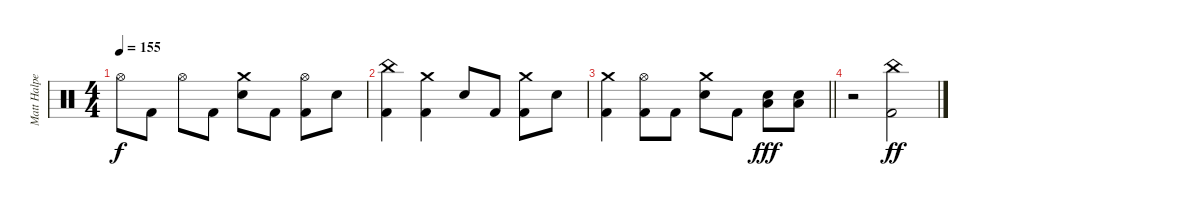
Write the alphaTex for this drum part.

\track ("Matt Halpern - Drums" "Matt Halpe") {instrument percussion}
\staff {score}
\articulation defaults
\ts (4 4)
\tempo 155
\clef neutral
\ks c "Hi-Hat (open)".8{dy f} "Kick (hit) 2".8 "Hi-Hat (open)".8 "Kick (hit) 2".8
("Crash medium (hit)" "Electric Snare (hit)").8 "Kick (hit) 2".8 ("Hi-Hat (open)" "Kick (hit) 2").8 "Electric Snare (hit)".8 |
("China (hit)" "Kick (hit) 2").4 ("Crash medium (hit)" "Kick (hit) 2").4 "Electric Snare (hit)".8 "Kick (hit) 2".8 ("Crash medium (hit)" "Kick (hit) 2").8 "Electric Snare (hit)".8 |
\barLineRight lightlight
("Crash medium (hit)" "Kick (hit) 2").4 ("Hi-Hat (open)" "Kick (hit) 2").8 "Kick (hit) 2".8 ("Crash medium (hit)" "Electric Snare (hit)").8 "Kick (hit) 2".8 ("Electric Snare (hit)" "Low Floor Tom (hit)").8{dy fff} ("Electric Snare (hit)" "Low Floor Tom (hit)").8 |
r.2 ("China (hit)" "Kick (hit) 2").2{dy ff}
